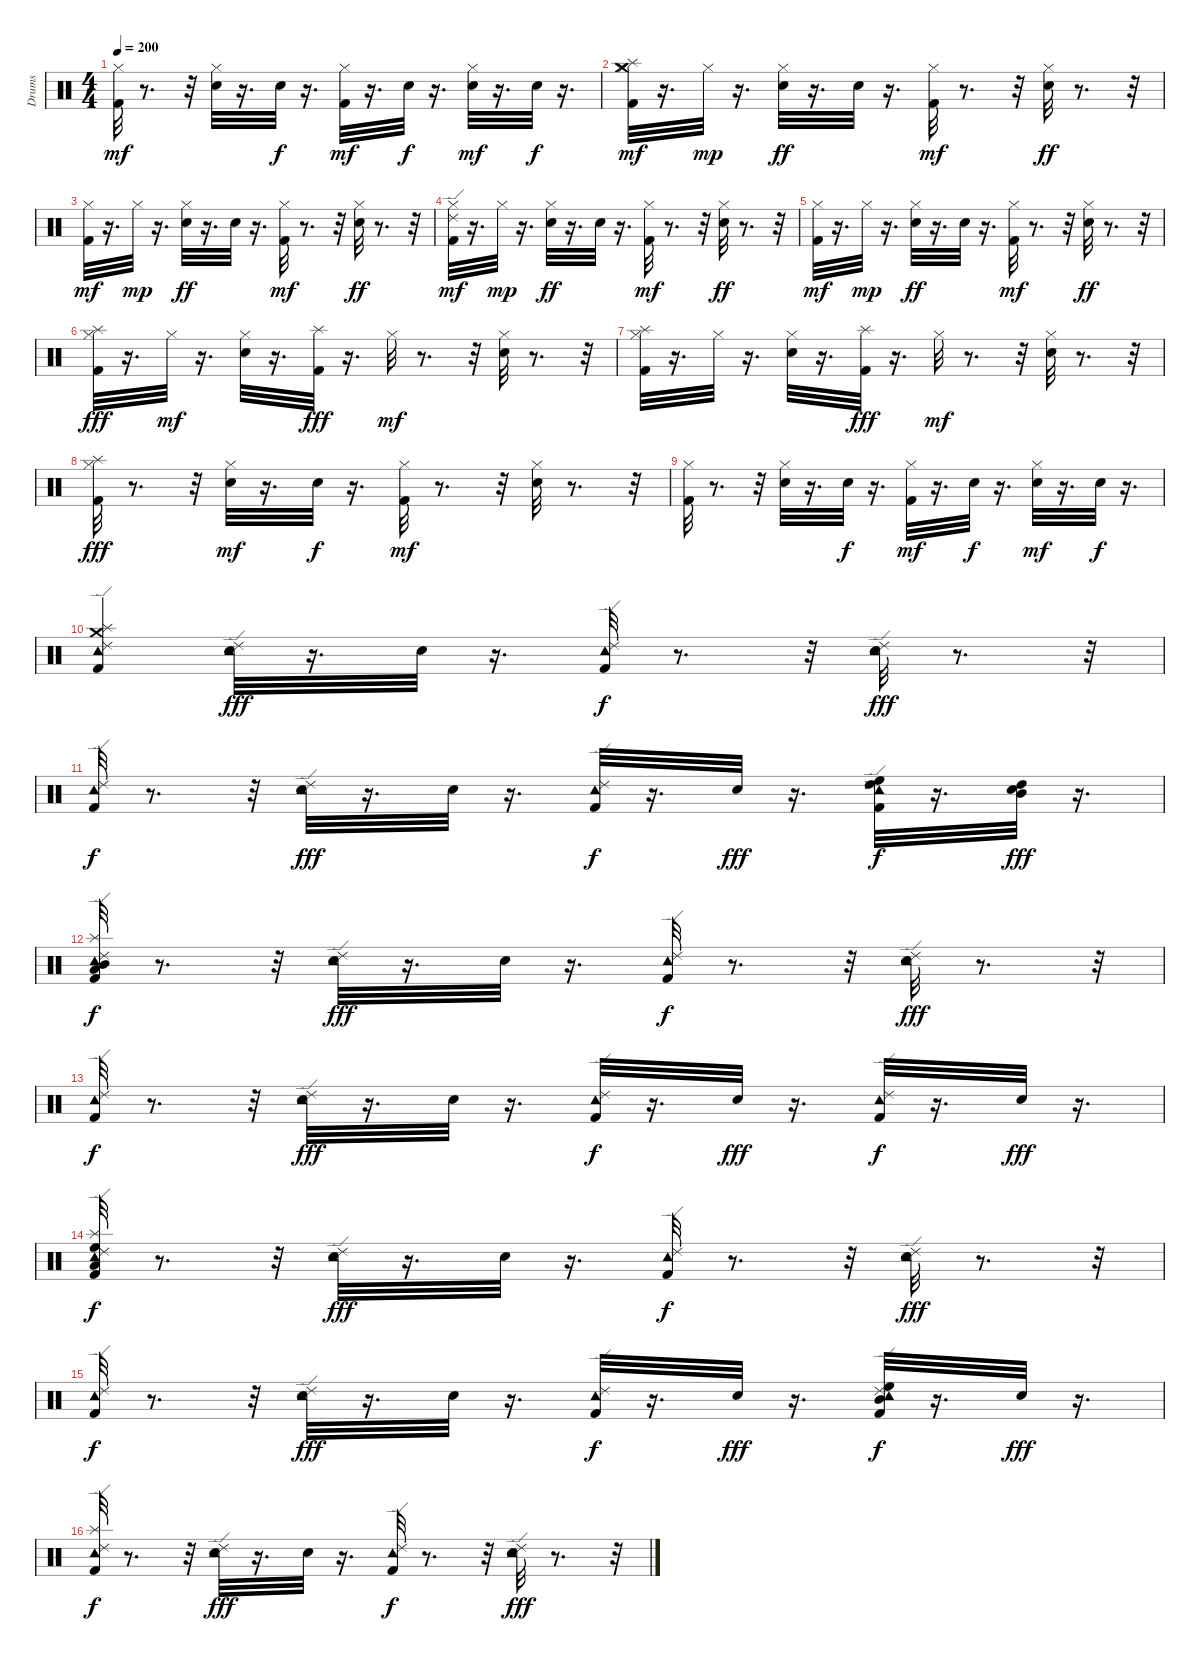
\track ("Drums" "Drums") {instrument percussion}
\staff {score}
\articulation defaults
\ts (4 4)
\tempo 200
\clef neutral
\ks c
("Hi-Hat (closed)" "Kick (hit) 2").32{dy mf} r.8{d} r.32 ("Hi-Hat (closed)" "Electric Snare (hit)").32 r.16{d} "Electric Snare (hit)".32{dy f} r.16{d} ("Hi-Hat (closed)" "Kick (hit) 2").32{dy mf} r.16{d} "Electric Snare (hit)".32{dy f} r.16{d} ("Hi-Hat (closed)" "Electric Snare (hit)").32{dy mf} r.16{d} "Electric Snare (hit)".32{dy f} r.16{d} |
("Hi-Hat (closed)" "Splash (hit)" "Crash medium (hit)" "Kick (hit) 2").32{dy mf} r.16{d} "Hi-Hat (closed)".32{dy mp} r.16{d} ("Hi-Hat (closed)" "Electric Snare (hit)").32{dy ff} r.16{d} "Electric Snare (hit)".32 r.16{d} ("Hi-Hat (closed)" "Kick (hit) 2").32{dy mf} r.8{d} r.32 ("Hi-Hat (closed)" "Electric Snare (hit)").32{dy ff} r.8{d} r.32 |
("Hi-Hat (closed)" "Kick (hit) 2").32{dy mf} r.16{d} "Hi-Hat (closed)".32{dy mp} r.16{d} ("Hi-Hat (closed)" "Electric Snare (hit)").32{dy ff} r.16{d} "Electric Snare (hit)".32 r.16{d} ("Hi-Hat (closed)" "Kick (hit) 2").32{dy mf} r.8{d} r.32 ("Hi-Hat (closed)" "Electric Snare (hit)").32{dy ff} r.8{d} r.32 |
("Ride (edge) 2" "Hi-Hat (closed)" "Kick (hit) 2").32{dy mf} r.16{d} "Hi-Hat (closed)".32{dy mp} r.16{d} ("Hi-Hat (closed)" "Electric Snare (hit)").32{dy ff} r.16{d} "Electric Snare (hit)".32 r.16{d} ("Hi-Hat (closed)" "Kick (hit) 2").32{dy mf} r.8{d} r.32 ("Hi-Hat (closed)" "Electric Snare (hit)").32{dy ff} r.8{d} r.32 |
("Hi-Hat (closed)" "Kick (hit) 2").32{dy mf} r.16{d} "Hi-Hat (closed)".32{dy mp} r.16{d} ("Hi-Hat (closed)" "Electric Snare (hit)").32{dy ff} r.16{d} "Electric Snare (hit)".32 r.16{d} ("Hi-Hat (closed)" "Kick (hit) 2").32{dy mf} r.8{d} r.32 ("Hi-Hat (closed)" "Electric Snare (hit)").32{dy ff} r.8{d} r.32 |
("Hi-Hat (closed)" "Kick (hit) 2" "Splash (hit)").32{dy fff} r.16{d} "Hi-Hat (closed)".32{dy mf} r.16{d} ("Hi-Hat (closed)" "Electric Snare (hit)").32 r.16{d} ("Splash (hit)" "Kick (hit) 2").32{dy fff} r.16{d} "Hi-Hat (closed)".32{dy mf} r.8{d} r.32 ("Hi-Hat (closed)" "Electric Snare (hit)").32 r.8{d} r.32 |
("Splash (hit)" "Hi-Hat (closed)" "Kick (hit) 2").32 r.16{d} "Hi-Hat (closed)".32 r.16{d} ("Hi-Hat (closed)" "Electric Snare (hit)").32 r.16{d} ("Splash (hit)" "Kick (hit) 2").32{dy fff} r.16{d} "Hi-Hat (closed)".32{dy mf} r.8{d} r.32 ("Hi-Hat (closed)" "Electric Snare (hit)").32 r.8{d} r.32 |
("Hi-Hat (closed)" "Splash (hit)" "Kick (hit) 2").32{dy fff} r.8{d} r.32 ("Hi-Hat (closed)" "Electric Snare (hit)").32{dy mf} r.16{d} "Electric Snare (hit)".32{dy f} r.16{d} ("Hi-Hat (closed)" "Kick (hit) 2").32{dy mf} r.8{d} r.32 ("Hi-Hat (closed)" "Electric Snare (hit)").32 r.8{d} r.32 |
("Hi-Hat (closed)" "Kick (hit) 2").32 r.8{d} r.32 ("Hi-Hat (closed)" "Electric Snare (hit)").32 r.16{d} "Electric Snare (hit)".32{dy f} r.16{d} ("Hi-Hat (closed)" "Kick (hit) 2").32{dy mf} r.16{d} "Electric Snare (hit)".32{dy f} r.16{d} ("Hi-Hat (closed)" "Electric Snare (hit)").32{dy mf} r.16{d} "Electric Snare (hit)".32{dy f} r.16{d} |
("Ride (edge) 2" "Tambourine (hit)" "Kick (hit) 2" "Splash (hit)" "Crash medium (hit)").4 ("Ride (edge) 2" "Tambourine (hit)" "Electric Snare (hit)").32{dy fff} r.16{d} "Electric Snare (hit)".32 r.16{d} ("Ride (edge) 2" "Tambourine (hit)" "Kick (hit) 2").32{dy f} r.8{d} r.32 ("Ride (edge) 2" "Tambourine (hit)" "Electric Snare (hit)").32{dy fff} r.8{d} r.32 |
("Ride (edge) 2" "Tambourine (hit)" "Kick (hit) 2").32{dy f} r.8{d} r.32 ("Ride (edge) 2" "Tambourine (hit)" "Electric Snare (hit)").32{dy fff} r.16{d} "Electric Snare (hit)".32 r.16{d} ("Ride (edge) 2" "Tambourine (hit)" "Kick (hit) 2").32{dy f} r.16{d} "Electric Snare (hit)".32{dy fff} r.16{d} ("High Tom (hit)" "High Floor Tom (hit)" "Ride (edge) 2" "Tambourine (hit)" "Kick (hit) 2").32{dy f} r.16{d} ("Mid Tom (hit)" "High Tom (hit)" "Electric Snare (hit)").32{dy fff} r.16{d} |
("Mid Tom (hit)" "Low Tom (hit)" "Ride (edge) 2" "Tambourine (hit)" "Kick (hit) 2" "Splash (hit)").32{dy f} r.8{d} r.32 ("Ride (edge) 2" "Tambourine (hit)" "Electric Snare (hit)").32{dy fff} r.16{d} "Electric Snare (hit)".32 r.16{d} ("Ride (edge) 2" "Tambourine (hit)" "Kick (hit) 2").32{dy f} r.8{d} r.32 ("Ride (edge) 2" "Tambourine (hit)" "Electric Snare (hit)").32{dy fff} r.8{d} r.32 |
("Ride (edge) 2" "Tambourine (hit)" "Kick (hit) 2").32{dy f} r.8{d} r.32 ("Ride (edge) 2" "Tambourine (hit)" "Electric Snare (hit)").32{dy fff} r.16{d} "Electric Snare (hit)".32 r.16{d} ("Ride (edge) 2" "Tambourine (hit)" "Kick (hit) 2").32{dy f} r.16{d} "Electric Snare (hit)".32{dy fff} r.16{d} ("Ride (edge) 2" "Tambourine (hit)" "Kick (hit) 2").32{dy f} r.16{d} "Electric Snare (hit)".32{dy fff} r.16{d} |
("Low Tom (hit)" "High Floor Tom (hit)" "Ride (edge) 2" "Tambourine (hit)" "Kick (hit) 2" "Splash (hit)").32{dy f} r.8{d} r.32 ("Ride (edge) 2" "Tambourine (hit)" "Electric Snare (hit)").32{dy fff} r.16{d} "Electric Snare (hit)".32 r.16{d} ("Ride (edge) 2" "Tambourine (hit)" "Kick (hit) 2").32{dy f} r.8{d} r.32 ("Ride (edge) 2" "Tambourine (hit)" "Electric Snare (hit)").32{dy fff} r.8{d} r.32 |
("Ride (edge) 2" "Tambourine (hit)" "Kick (hit) 2").32{dy f} r.8{d} r.32 ("Ride (edge) 2" "Tambourine (hit)" "Electric Snare (hit)").32{dy fff} r.16{d} "Electric Snare (hit)".32 r.16{d} ("Ride (edge) 2" "Tambourine (hit)" "Kick (hit) 2").32{dy f} r.16{d} "Electric Snare (hit)".32{dy fff} r.16{d} ("Mid Tom (hit)" "High Floor Tom (hit)" "Ride (edge) 2" "Tambourine (hit)" "Kick (hit) 2").32{dy f} r.16{d} "Electric Snare (hit)".32{dy fff} r.16{d} |
("Ride (edge) 2" "Tambourine (hit)" "Kick (hit) 2" "Splash (hit)").32{dy f} r.8{d} r.32 ("Ride (edge) 2" "Tambourine (hit)" "Electric Snare (hit)").32{dy fff} r.16{d} "Electric Snare (hit)".32 r.16{d} ("Ride (edge) 2" "Tambourine (hit)" "Kick (hit) 2").32{dy f} r.8{d} r.32 ("Ride (edge) 2" "Tambourine (hit)" "Electric Snare (hit)").32{dy fff} r.8{d} r.32
